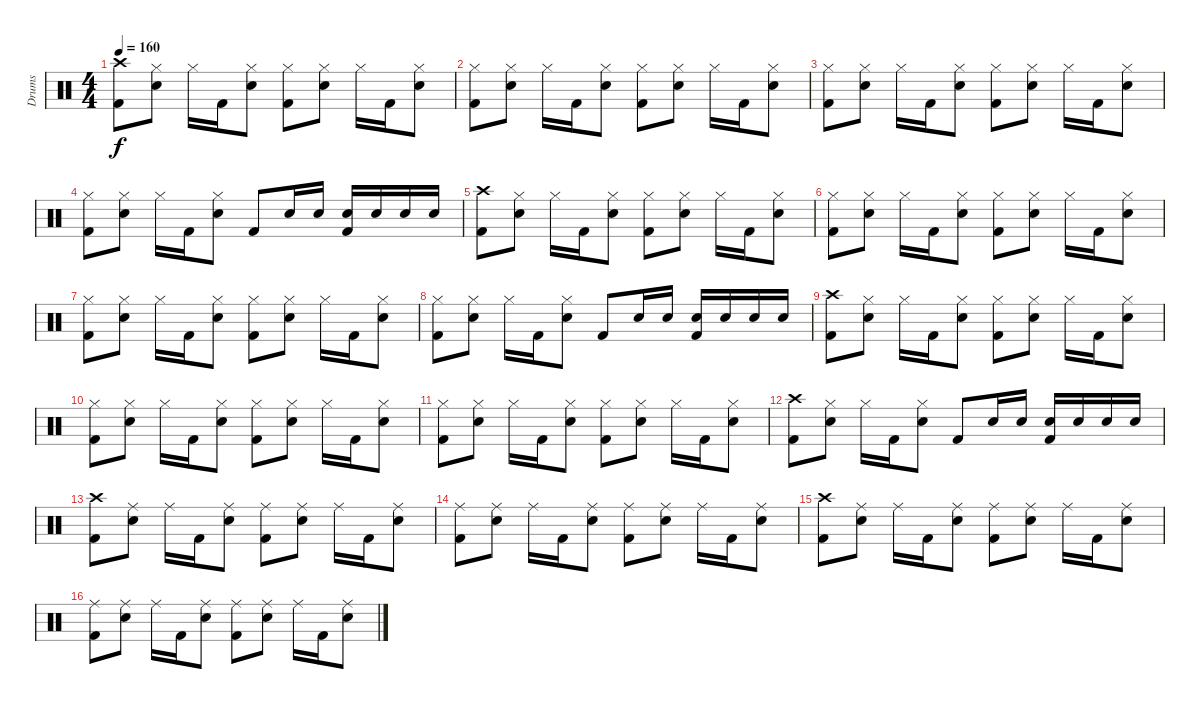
\track ("Drums" "Drums") {instrument percussion}
\staff {score}
\articulation defaults
\ts (4 4)
\tempo 160
\clef neutral
\ks c
("Crash high (hit)" "Kick (hit) 2").8{dy f} ("Hi-Hat (closed)" "Snare (hit) 2").8 "Hi-Hat (closed)".16 "Kick (hit) 2".16 ("Hi-Hat (closed)" "Snare (hit) 2").8 ("Hi-Hat (closed)" "Kick (hit) 2").8 ("Hi-Hat (closed)" "Snare (hit) 2").8 "Hi-Hat (closed)".16 "Kick (hit) 2".16 ("Hi-Hat (closed)" "Snare (hit) 2").8 |
("Hi-Hat (closed)" "Kick (hit) 2").8 ("Hi-Hat (closed)" "Snare (hit) 2").8 "Hi-Hat (closed)".16 "Kick (hit) 2".16 ("Hi-Hat (closed)" "Snare (hit) 2").8 ("Hi-Hat (closed)" "Kick (hit) 2").8 ("Hi-Hat (closed)" "Snare (hit) 2").8 "Hi-Hat (closed)".16 "Kick (hit) 2".16 ("Hi-Hat (closed)" "Snare (hit) 2").8 |
("Hi-Hat (closed)" "Kick (hit) 2").8 ("Hi-Hat (closed)" "Snare (hit) 2").8 "Hi-Hat (closed)".16 "Kick (hit) 2".16 ("Hi-Hat (closed)" "Snare (hit) 2").8 ("Hi-Hat (closed)" "Kick (hit) 2").8 ("Hi-Hat (closed)" "Snare (hit) 2").8 "Hi-Hat (closed)".16 "Kick (hit) 2".16 ("Hi-Hat (closed)" "Snare (hit) 2").8 |
("Hi-Hat (closed)" "Kick (hit) 2").8 ("Hi-Hat (closed)" "Snare (hit) 2").8 "Hi-Hat (closed)".16 "Kick (hit) 2".16 ("Hi-Hat (closed)" "Snare (hit) 2").8 "Kick (hit) 2".8 "Snare (hit) 2".16 "Snare (hit) 2".16 ("Snare (hit) 2" "Kick (hit) 2").16 "Snare (hit) 2".16 "Snare (hit) 2".16 "Snare (hit) 2".16 |
("Crash high (hit)" "Kick (hit) 2").8 ("Hi-Hat (closed)" "Snare (hit) 2").8 "Hi-Hat (closed)".16 "Kick (hit) 2".16 ("Hi-Hat (closed)" "Snare (hit) 2").8 ("Hi-Hat (closed)" "Kick (hit) 2").8 ("Hi-Hat (closed)" "Snare (hit) 2").8 "Hi-Hat (closed)".16 "Kick (hit) 2".16 ("Hi-Hat (closed)" "Snare (hit) 2").8 |
("Hi-Hat (closed)" "Kick (hit) 2").8 ("Hi-Hat (closed)" "Snare (hit) 2").8 "Hi-Hat (closed)".16 "Kick (hit) 2".16 ("Hi-Hat (closed)" "Snare (hit) 2").8 ("Hi-Hat (closed)" "Kick (hit) 2").8 ("Hi-Hat (closed)" "Snare (hit) 2").8 "Hi-Hat (closed)".16 "Kick (hit) 2".16 ("Hi-Hat (closed)" "Snare (hit) 2").8 |
("Hi-Hat (closed)" "Kick (hit) 2").8 ("Hi-Hat (closed)" "Snare (hit) 2").8 "Hi-Hat (closed)".16 "Kick (hit) 2".16 ("Hi-Hat (closed)" "Snare (hit) 2").8 ("Hi-Hat (closed)" "Kick (hit) 2").8 ("Hi-Hat (closed)" "Snare (hit) 2").8 "Hi-Hat (closed)".16 "Kick (hit) 2".16 ("Hi-Hat (closed)" "Snare (hit) 2").8 |
("Hi-Hat (closed)" "Kick (hit) 2").8 ("Hi-Hat (closed)" "Snare (hit) 2").8 "Hi-Hat (closed)".16 "Kick (hit) 2".16 ("Hi-Hat (closed)" "Snare (hit) 2").8 "Kick (hit) 2".8 "Snare (hit) 2".16 "Snare (hit) 2".16 ("Snare (hit) 2" "Kick (hit) 2").16 "Snare (hit) 2".16 "Snare (hit) 2".16 "Snare (hit) 2".16 |
("Crash high (hit)" "Kick (hit) 2").8 ("Hi-Hat (closed)" "Snare (hit) 2").8 "Hi-Hat (closed)".16 "Kick (hit) 2".16 ("Hi-Hat (closed)" "Snare (hit) 2").8 ("Hi-Hat (closed)" "Kick (hit) 2").8 ("Hi-Hat (closed)" "Snare (hit) 2").8 "Hi-Hat (closed)".16 "Kick (hit) 2".16 ("Hi-Hat (closed)" "Snare (hit) 2").8 |
("Hi-Hat (closed)" "Kick (hit) 2").8 ("Hi-Hat (closed)" "Snare (hit) 2").8 "Hi-Hat (closed)".16 "Kick (hit) 2".16 ("Hi-Hat (closed)" "Snare (hit) 2").8 ("Hi-Hat (closed)" "Kick (hit) 2").8 ("Hi-Hat (closed)" "Snare (hit) 2").8 "Hi-Hat (closed)".16 "Kick (hit) 2".16 ("Hi-Hat (closed)" "Snare (hit) 2").8 |
("Hi-Hat (closed)" "Kick (hit) 2").8 ("Hi-Hat (closed)" "Snare (hit) 2").8 "Hi-Hat (closed)".16 "Kick (hit) 2".16 ("Hi-Hat (closed)" "Snare (hit) 2").8 ("Hi-Hat (closed)" "Kick (hit) 2").8 ("Hi-Hat (closed)" "Snare (hit) 2").8 "Hi-Hat (closed)".16 "Kick (hit) 2".16 ("Hi-Hat (closed)" "Snare (hit) 2").8 |
("Crash high (hit)" "Kick (hit) 2").8 ("Hi-Hat (closed)" "Snare (hit) 2").8 "Hi-Hat (closed)".16 "Kick (hit) 2".16 ("Hi-Hat (closed)" "Snare (hit) 2").8 "Kick (hit) 2".8 "Snare (hit) 2".16 "Snare (hit) 2".16 ("Snare (hit) 2" "Kick (hit) 2").16 "Snare (hit) 2".16 "Snare (hit) 2".16 "Snare (hit) 2".16 |
("Crash high (hit)" "Kick (hit) 2").8 ("Ride (middle)" "Snare (hit) 2").8 "Ride (middle)".16 "Kick (hit) 2".16 ("Ride (middle)" "Snare (hit) 2").8 ("Ride (middle)" "Kick (hit) 2").8 ("Ride (middle)" "Snare (hit) 2").8 "Ride (middle)".16 "Kick (hit) 2".16 ("Ride (middle)" "Snare (hit) 2").8 |
("Ride (middle)" "Kick (hit) 2").8 ("Ride (middle)" "Snare (hit) 2").8 "Ride (middle)".16 "Kick (hit) 2".16 ("Ride (middle)" "Snare (hit) 2").8 ("Ride (middle)" "Kick (hit) 2").8 ("Ride (middle)" "Snare (hit) 2").8 "Ride (middle)".16 "Kick (hit) 2".16 ("Ride (middle)" "Snare (hit) 2").8 |
("Crash high (hit)" "Kick (hit) 2").8 ("Ride (middle)" "Snare (hit) 2").8 "Ride (middle)".16 "Kick (hit) 2".16 ("Ride (middle)" "Snare (hit) 2").8 ("Ride (middle)" "Kick (hit) 2").8 ("Ride (middle)" "Snare (hit) 2").8 "Ride (middle)".16 "Kick (hit) 2".16 ("Ride (middle)" "Snare (hit) 2").8 |
("Ride (middle)" "Kick (hit) 2").8 ("Ride (middle)" "Snare (hit) 2").8 "Ride (middle)".16 "Kick (hit) 2".16 ("Ride (middle)" "Snare (hit) 2").8 ("Ride (middle)" "Kick (hit) 2").8 ("Ride (middle)" "Snare (hit) 2").8 "Ride (middle)".16 "Kick (hit) 2".16 ("Ride (middle)" "Snare (hit) 2").8
